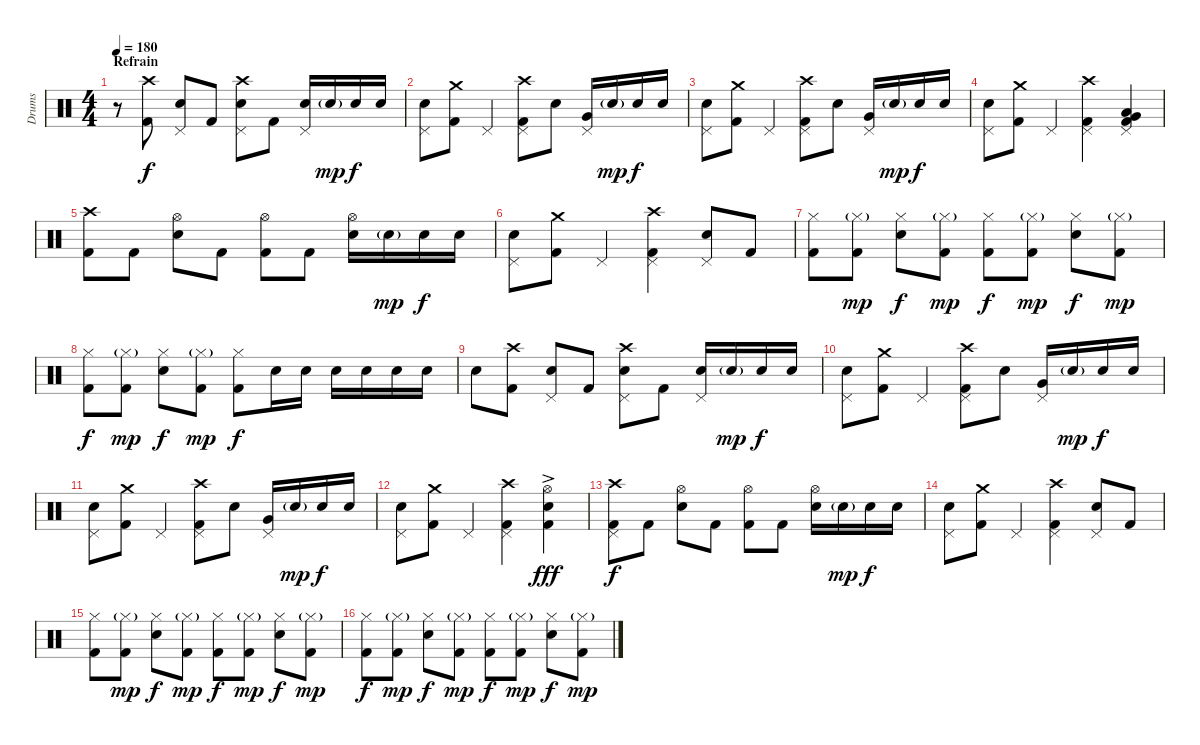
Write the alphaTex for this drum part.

\track ("Drums" "Drums") {instrument percussion}
\staff {score}
\articulation defaults
\ts (4 4)
\section ("" "Refrain")
\tempo 180
\clef neutral
\ks c
r.8{dy f} ("Crash high (hit)" "Kick (hit) 2").8 ("Pedal Hi-Hat (hit)" "Snare (hit) 2").8 "Kick (hit) 2".8 ("Crash high (hit)" "Pedal Hi-Hat (hit)" "Snare (hit) 2").8 "Kick (hit) 2".8 ("Pedal Hi-Hat (hit)" "Snare (hit) 2").16 "Snare (hit) 2"{g}.16{dy mp} "Snare (hit) 2".16{dy f} "Snare (hit) 2".16 |
("Pedal Hi-Hat (hit)" "Snare (hit) 2").8 ("Crash medium (hit)" "Kick (hit) 2").8 "Pedal Hi-Hat (hit)".4 ("Crash high (hit)" "Pedal Hi-Hat (hit)" "Kick (hit) 2").8 "Snare (hit) 2".8 ("Pedal Hi-Hat (hit)" "Very Low Tom (hit)").16 "Snare (hit) 2"{g}.16{dy mp} "Snare (hit) 2".16{dy f} "Snare (hit) 2".16 |
("Pedal Hi-Hat (hit)" "Snare (hit) 2").8 ("Crash medium (hit)" "Kick (hit) 2").8 "Pedal Hi-Hat (hit)".4 ("Crash high (hit)" "Pedal Hi-Hat (hit)" "Kick (hit) 2").8 "Snare (hit) 2".8 ("Pedal Hi-Hat (hit)" "Very Low Tom (hit)").16 "Snare (hit) 2"{g}.16{dy mp} "Snare (hit) 2".16{dy f} "Snare (hit) 2".16 |
("Pedal Hi-Hat (hit)" "Snare (hit) 2").8 ("Crash medium (hit)" "Kick (hit) 2").8 "Pedal Hi-Hat (hit)".4 ("Crash high (hit)" "Pedal Hi-Hat (hit)" "Kick (hit) 2").4 ("Pedal Hi-Hat (hit)" "Very Low Tom (hit)" "Low Floor Tom (hit)" "Kick (hit) 2").4 |
("Crash high (hit)" "Kick (hit) 2").8 "Kick (hit) 2".8 ("Hi-Hat (open)" "Snare (hit) 2").8 "Kick (hit) 2".8 ("Hi-Hat (open)" "Kick (hit) 2").8 "Kick (hit) 2".8 ("Hi-Hat (open)" "Snare (hit) 2").16 "Snare (hit) 2"{g}.16{dy mp} "Snare (hit) 2".16{dy f} "Snare (hit) 2".16 |
("Pedal Hi-Hat (hit)" "Snare (hit) 2").8 ("Crash medium (hit)" "Kick (hit) 2").8 "Pedal Hi-Hat (hit)".4 ("Crash high (hit)" "Pedal Hi-Hat (hit)" "Kick (hit) 2").4 ("Pedal Hi-Hat (hit)" "Snare (hit) 2").8 "Kick (hit) 2".8 |
("Hi-Hat (closed)" "Kick (hit) 2").8 ("Hi-Hat (closed)"{g} "Kick (hit) 2").8{dy mp} ("Hi-Hat (closed)" "Snare (hit) 2").8{dy f} ("Hi-Hat (closed)"{g} "Kick (hit) 2").8{dy mp} ("Hi-Hat (closed)" "Kick (hit) 2").8{dy f} ("Hi-Hat (closed)"{g} "Kick (hit) 2").8{dy mp} ("Hi-Hat (closed)" "Snare (hit) 2").8{dy f} ("Hi-Hat (closed)"{g} "Kick (hit) 2").8{dy mp} |
("Hi-Hat (closed)" "Kick (hit) 2").8{dy f} ("Hi-Hat (closed)"{g} "Kick (hit) 2").8{dy mp} ("Hi-Hat (closed)" "Snare (hit) 2").8{dy f} ("Hi-Hat (closed)"{g} "Kick (hit) 2").8{dy mp} ("Hi-Hat (closed)" "Kick (hit) 2").8{dy f} "Snare (hit) 2".16 "Snare (hit) 2".16 "Snare (hit) 2".16 "Snare (hit) 2".16 "Snare (hit) 2".16 "Snare (hit) 2".16 |
"Snare (hit) 2".8 ("Crash high (hit)" "Kick (hit) 2").8 ("Pedal Hi-Hat (hit)" "Snare (hit) 2").8 "Kick (hit) 2".8 ("Crash high (hit)" "Pedal Hi-Hat (hit)" "Snare (hit) 2").8 "Kick (hit) 2".8 ("Pedal Hi-Hat (hit)" "Snare (hit) 2").16 "Snare (hit) 2"{g}.16{dy mp} "Snare (hit) 2".16{dy f} "Snare (hit) 2".16 |
("Pedal Hi-Hat (hit)" "Snare (hit) 2").8 ("Crash medium (hit)" "Kick (hit) 2").8 "Pedal Hi-Hat (hit)".4 ("Crash high (hit)" "Pedal Hi-Hat (hit)" "Kick (hit) 2").8 "Snare (hit) 2".8 ("Pedal Hi-Hat (hit)" "Very Low Tom (hit)").16 "Snare (hit) 2"{g}.16{dy mp} "Snare (hit) 2".16{dy f} "Snare (hit) 2".16 |
("Pedal Hi-Hat (hit)" "Snare (hit) 2").8 ("Crash medium (hit)" "Kick (hit) 2").8 "Pedal Hi-Hat (hit)".4 ("Crash high (hit)" "Pedal Hi-Hat (hit)" "Kick (hit) 2").8 "Snare (hit) 2".8 ("Pedal Hi-Hat (hit)" "Very Low Tom (hit)").16 "Snare (hit) 2"{g}.16{dy mp} "Snare (hit) 2".16{dy f} "Snare (hit) 2".16 |
("Pedal Hi-Hat (hit)" "Snare (hit) 2").8 ("Crash medium (hit)" "Kick (hit) 2").8 "Pedal Hi-Hat (hit)".4 ("Crash high (hit)" "Pedal Hi-Hat (hit)" "Kick (hit) 2").4 ("Hi-Hat (open)"{ac} "Snare (hit) 2" "Kick (hit) 2").4{dy fff} |
("Crash high (hit)" "Pedal Hi-Hat (hit)" "Kick (hit) 2").8{dy f} "Kick (hit) 2".8 ("Hi-Hat (open)" "Snare (hit) 2").8 "Kick (hit) 2".8 ("Hi-Hat (open)" "Kick (hit) 2").8 "Kick (hit) 2".8 ("Hi-Hat (open)" "Snare (hit) 2").16 "Snare (hit) 2"{g}.16{dy mp} "Snare (hit) 2".16{dy f} "Snare (hit) 2".16 |
("Pedal Hi-Hat (hit)" "Snare (hit) 2").8 ("Crash medium (hit)" "Kick (hit) 2").8 "Pedal Hi-Hat (hit)".4 ("Crash high (hit)" "Pedal Hi-Hat (hit)" "Kick (hit) 2").4 ("Pedal Hi-Hat (hit)" "Snare (hit) 2").8 "Kick (hit) 2".8 |
("Hi-Hat (closed)" "Kick (hit) 2").8 ("Hi-Hat (closed)"{g} "Kick (hit) 2").8{dy mp} ("Hi-Hat (closed)" "Snare (hit) 2").8{dy f} ("Hi-Hat (closed)"{g} "Kick (hit) 2").8{dy mp} ("Hi-Hat (closed)" "Kick (hit) 2").8{dy f} ("Hi-Hat (closed)"{g} "Kick (hit) 2").8{dy mp} ("Hi-Hat (closed)" "Snare (hit) 2").8{dy f} ("Hi-Hat (closed)"{g} "Kick (hit) 2").8{dy mp} |
("Hi-Hat (closed)" "Kick (hit) 2").8{dy f} ("Hi-Hat (closed)"{g} "Kick (hit) 2").8{dy mp} ("Hi-Hat (closed)" "Snare (hit) 2").8{dy f} ("Hi-Hat (closed)"{g} "Kick (hit) 2").8{dy mp} ("Hi-Hat (closed)" "Kick (hit) 2").8{dy f} ("Hi-Hat (closed)"{g} "Kick (hit) 2").8{dy mp} ("Hi-Hat (closed)" "Snare (hit) 2").8{dy f} ("Hi-Hat (closed)"{g} "Kick (hit) 2").8{dy mp}
